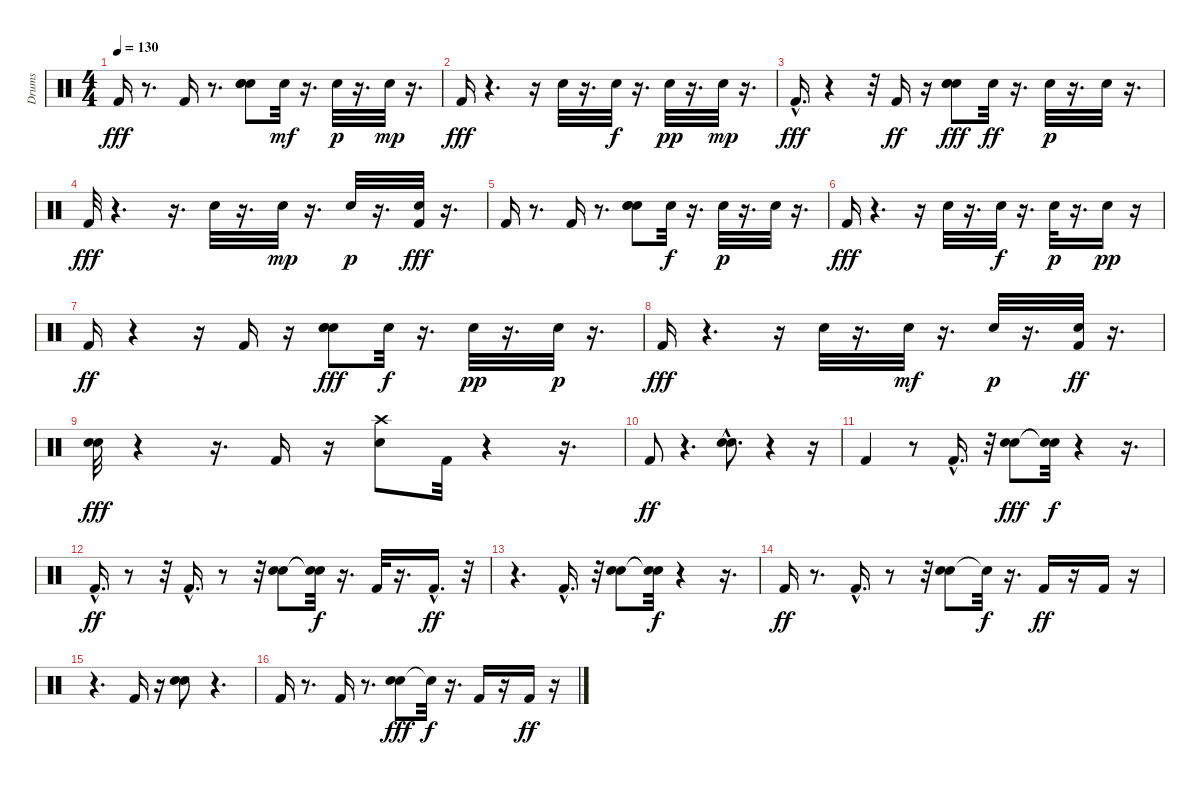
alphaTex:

\track ("Drums" "Drums") {instrument percussion}
\staff {score}
\articulation defaults
\ts (4 4)
\tempo 130
\clef neutral
\ks c "Kick (hit) 2".16{dy fff}
r.8{d} "Kick (hit) 2".16 r.8{d} ("Hand Clap (hit)" "Hand Clap (hit)" "Snare (hit) 2").8 "Hand Clap (hit)".32{dy mf} r.16{d} "Hand Clap (hit)".32{dy p} r.16{d} "Hand Clap (hit)".32{dy mp} r.16{d} |
"Kick (hit) 2".16{dy fff} r.4{d} r.16 "Hand Clap (hit)".32 r.16{d} "Hand Clap (hit)".32{dy f} r.16{d} "Hand Clap (hit)".32{dy pp} r.16{d} "Hand Clap (hit)".32{dy mp} r.16{d} |
"Kick (hit) 2"{hac}.16{d dy fff} r.4 r.32 "Kick (hit) 2".16{dy ff} r.16 ("Hand Clap (hit)" "Hand Clap (hit)" "Snare (hit) 2").8{dy fff} "Hand Clap (hit)".32{dy ff} r.16{d} "Hand Clap (hit)".32{dy p} r.16{d} "Hand Clap (hit)".32 r.16{d} |
"Kick (hit) 2".32{dy fff} r.4{d} r.16{d} "Hand Clap (hit)".32 r.16{d} "Hand Clap (hit)".32{dy mp} r.16{d} "Hand Clap (hit)".32{dy p} r.16{d} ("Hand Clap (hit)" "Kick (hit) 2").32{dy fff} r.16{d} |
"Kick (hit) 2".16 r.8{d} "Kick (hit) 2".16 r.8{d} ("Hand Clap (hit)" "Hand Clap (hit)" "Snare (hit) 2").8 "Hand Clap (hit)".32{dy f} r.16{d} "Hand Clap (hit)".32{dy p} r.16{d} "Hand Clap (hit)".32 r.16{d} |
"Kick (hit) 2".16{dy fff} r.4{d} r.16 "Hand Clap (hit)".32 r.16{d} "Hand Clap (hit)".32{dy f} r.16{d} "Hand Clap (hit)".32{dy p} r.16{d} "Hand Clap (hit)".16{dy pp} r.16 |
"Kick (hit) 2".16{dy ff} r.4 r.16 "Kick (hit) 2".16 r.16 ("Hand Clap (hit)" "Hand Clap (hit)" "Snare (hit) 2").8{dy fff} "Hand Clap (hit)".32{dy f} r.16{d} "Hand Clap (hit)".32{dy pp} r.16{d} "Hand Clap (hit)".32{dy p} r.16{d} |
"Kick (hit) 2".16{dy fff} r.4{d} r.16 "Hand Clap (hit)".32 r.16{d} "Hand Clap (hit)".32{dy mf} r.16{d} "Hand Clap (hit)".32{dy p} r.16{d} ("Hand Clap (hit)" "Kick (hit) 2").32{dy ff} r.16{d} |
("Hand Clap (hit)" "Snare (hit) 2").32{dy fff} r.4 r.16{d} "Kick (hit) 2".16 r.16 ("Crash high (hit)" "Electric Snare (hit)").8 "Kick (hit) 2".32 r.4 r.16{d} |
"Kick (hit) 2".8{dy ff} r.4{d} ("Hand Clap (hit)"{hac} "Snare (hit) 2"{hac}).8{d} r.4 r.16 |
"Kick (hit) 2".4 r.8 "Kick (hit) 2"{hac}.16{d} r.32 ("Snare (hit) 2" "Hand Clap (hit)").8{dy fff} ("Snare (hit)"{t} "Snare (hit)"{t}).32{dy f} r.4 r.16{d} |
"Kick (hit) 2"{hac}.16{d dy ff} r.8 r.32 "Kick (hit) 2"{hac}.16{d} r.8 r.32 ("Hand Clap (hit)" "Snare (hit) 2").8 ("Snare (hit)"{t} "Snare (hit)"{t}).32{dy f} r.16{d} "Kick (hit) 2".32 r.16{d} "Kick (hit) 2"{hac}.16{d dy ff} r.32 |
r.4{d} "Kick (hit) 2"{hac}.16{d} r.32 ("Hand Clap (hit)" "Snare (hit) 2").8 ("Snare (hit)"{t} "Snare (hit)"{t}).32{dy f} r.4 r.16{d} |
"Kick (hit) 2".16{dy ff} r.8{d} "Kick (hit) 2"{hac}.16{d} r.8 r.32 ("Hand Clap (hit)" "Snare (hit) 2").8 "Snare (hit)"{t}.32{dy f} r.16{d} "Kick (hit) 2".16{dy ff} r.16 "Kick (hit) 2".16 r.16 |
r.4{d} "Kick (hit) 2".16 r.16 ("Hand Clap (hit)" "Snare (hit) 2").8 r.4{d} |
"Kick (hit) 2".16 r.8{d} "Kick (hit) 2".16 r.8{d} ("Snare (hit) 2" "Hand Clap (hit)").8{dy fff} "Snare (hit)"{t}.32{dy f} r.16{d} "Kick (hit) 2".16 r.16 "Kick (hit) 2".16{dy ff} r.16
